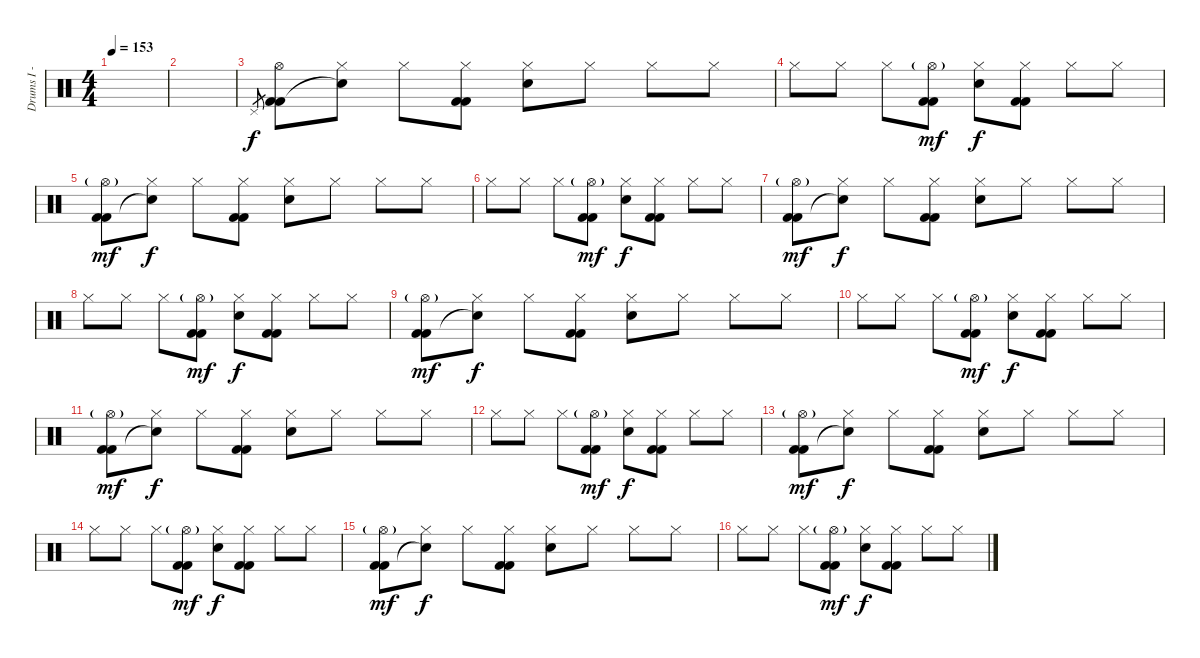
\track ("Drums I - Adam" "Drums I - ") {instrument percussion}
\staff {score}
\articulation defaults
\ts (4 4)
\tempo 153
\clef neutral
\ks c
|
|
"Pedal Hi-Hat (hit)"{sl}.8{gr} ("Hi-Hat (open)" "Kick (hit) 2" "Kick (hit) 2").8 ("Hi-Hat (closed)" "Snare (hit)"{t}).8 "Hi-Hat (closed)".8 ("Hi-Hat (closed)" "Kick (hit) 2" "Kick (hit) 2").8 ("Hi-Hat (closed)" "Electric Snare (hit)").8 "Hi-Hat (closed)".8 "Hi-Hat (closed)".8 "Hi-Hat (closed)".8 |
"Hi-Hat (closed)".8 "Hi-Hat (closed)".8 "Hi-Hat (closed)".8 ("Hi-Hat (open)"{g} "Kick (hit) 2" "Kick (hit) 2").8{dy mf} ("Hi-Hat (closed)" "Electric Snare (hit)").8{dy f} ("Hi-Hat (closed)" "Kick (hit) 2" "Kick (hit) 2").8 "Hi-Hat (closed)".8 "Hi-Hat (closed)".8 |
("Hi-Hat (open)"{g} "Kick (hit) 2" "Kick (hit) 2").8{dy mf} ("Hi-Hat (closed)" "Snare (hit)"{t}).8{dy f} "Hi-Hat (closed)".8 ("Hi-Hat (closed)" "Kick (hit) 2" "Kick (hit) 2").8 ("Hi-Hat (closed)" "Electric Snare (hit)").8 "Hi-Hat (closed)".8 "Hi-Hat (closed)".8 "Hi-Hat (closed)".8 |
"Hi-Hat (closed)".8 "Hi-Hat (closed)".8 "Hi-Hat (closed)".8 ("Hi-Hat (open)"{g} "Kick (hit) 2" "Kick (hit) 2").8{dy mf} ("Hi-Hat (closed)" "Electric Snare (hit)").8{dy f} ("Hi-Hat (closed)" "Kick (hit) 2" "Kick (hit) 2").8 "Hi-Hat (closed)".8 "Hi-Hat (closed)".8 |
("Hi-Hat (open)"{g} "Kick (hit) 2" "Kick (hit) 2").8{dy mf} ("Hi-Hat (closed)" "Snare (hit)"{t}).8{dy f} "Hi-Hat (closed)".8 ("Hi-Hat (closed)" "Kick (hit) 2" "Kick (hit) 2").8 ("Hi-Hat (closed)" "Electric Snare (hit)").8 "Hi-Hat (closed)".8 "Hi-Hat (closed)".8 "Hi-Hat (closed)".8 |
"Hi-Hat (closed)".8 "Hi-Hat (closed)".8 "Hi-Hat (closed)".8 ("Hi-Hat (open)"{g} "Kick (hit) 2" "Kick (hit) 2").8{dy mf} ("Hi-Hat (closed)" "Electric Snare (hit)").8{dy f} ("Hi-Hat (closed)" "Kick (hit) 2" "Kick (hit) 2").8 "Hi-Hat (closed)".8 "Hi-Hat (closed)".8 |
("Hi-Hat (open)"{g} "Kick (hit) 2" "Kick (hit) 2").8{dy mf} ("Hi-Hat (closed)" "Snare (hit)"{t}).8{dy f} "Hi-Hat (closed)".8 ("Hi-Hat (closed)" "Kick (hit) 2" "Kick (hit) 2").8 ("Hi-Hat (closed)" "Electric Snare (hit)").8 "Hi-Hat (closed)".8 "Hi-Hat (closed)".8 "Hi-Hat (closed)".8 |
"Hi-Hat (closed)".8 "Hi-Hat (closed)".8 "Hi-Hat (closed)".8 ("Hi-Hat (open)"{g} "Kick (hit) 2" "Kick (hit) 2").8{dy mf} ("Hi-Hat (closed)" "Electric Snare (hit)").8{dy f} ("Hi-Hat (closed)" "Kick (hit) 2" "Kick (hit) 2").8 "Hi-Hat (closed)".8 "Hi-Hat (closed)".8 |
("Hi-Hat (open)"{g} "Kick (hit) 2" "Kick (hit) 2").8{dy mf} ("Hi-Hat (closed)" "Snare (hit)"{t}).8{dy f} "Hi-Hat (closed)".8 ("Hi-Hat (closed)" "Kick (hit) 2" "Kick (hit) 2").8 ("Hi-Hat (closed)" "Electric Snare (hit)").8 "Hi-Hat (closed)".8 "Hi-Hat (closed)".8 "Hi-Hat (closed)".8 |
"Hi-Hat (closed)".8 "Hi-Hat (closed)".8 "Hi-Hat (closed)".8 ("Hi-Hat (open)"{g} "Kick (hit) 2" "Kick (hit) 2").8{dy mf} ("Hi-Hat (closed)" "Electric Snare (hit)").8{dy f} ("Hi-Hat (closed)" "Kick (hit) 2" "Kick (hit) 2").8 "Hi-Hat (closed)".8 "Hi-Hat (closed)".8 |
("Hi-Hat (open)"{g} "Kick (hit) 2" "Kick (hit) 2").8{dy mf} ("Hi-Hat (closed)" "Snare (hit)"{t}).8{dy f} "Hi-Hat (closed)".8 ("Hi-Hat (closed)" "Kick (hit) 2" "Kick (hit) 2").8 ("Hi-Hat (closed)" "Electric Snare (hit)").8 "Hi-Hat (closed)".8 "Hi-Hat (closed)".8 "Hi-Hat (closed)".8 |
"Hi-Hat (closed)".8 "Hi-Hat (closed)".8 "Hi-Hat (closed)".8 ("Hi-Hat (open)"{g} "Kick (hit) 2" "Kick (hit) 2").8{dy mf} ("Hi-Hat (closed)" "Electric Snare (hit)").8{dy f} ("Hi-Hat (closed)" "Kick (hit) 2" "Kick (hit) 2").8 "Hi-Hat (closed)".8 "Hi-Hat (closed)".8 |
("Hi-Hat (open)"{g} "Kick (hit) 2" "Kick (hit) 2").8{dy mf} ("Hi-Hat (closed)" "Snare (hit)"{t}).8{dy f} "Hi-Hat (closed)".8 ("Hi-Hat (closed)" "Kick (hit) 2" "Kick (hit) 2").8 ("Hi-Hat (closed)" "Electric Snare (hit)").8 "Hi-Hat (closed)".8 "Hi-Hat (closed)".8 "Hi-Hat (closed)".8 |
"Hi-Hat (closed)".8 "Hi-Hat (closed)".8 "Hi-Hat (closed)".8 ("Hi-Hat (open)"{g} "Kick (hit) 2" "Kick (hit) 2").8{dy mf} ("Hi-Hat (closed)" "Electric Snare (hit)").8{dy f} ("Hi-Hat (closed)" "Kick (hit) 2" "Kick (hit) 2").8 "Hi-Hat (closed)".8 "Hi-Hat (closed)".8
